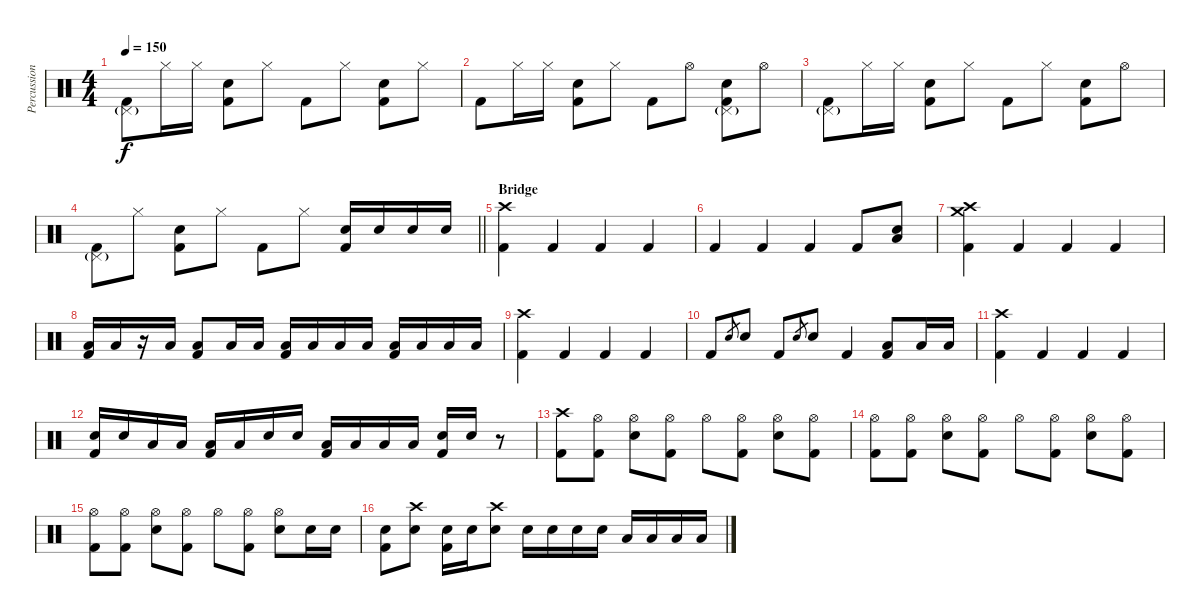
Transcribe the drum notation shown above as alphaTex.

\track ("Percussion" "Percussion") {instrument percussion}
\staff {score}
\articulation defaults
\ts (4 4)
\tempo 150
\clef neutral
\ks c
("Pedal Hi-Hat (hit)"{g} "Kick (hit) 2").8{dy f} "Hi-Hat (closed)".16 "Hi-Hat (closed)".16 ("Electric Snare (hit)" "Kick (hit) 2").8 "Hi-Hat (closed)".8 "Kick (hit) 2".8 "Hi-Hat (closed)".8 ("Electric Snare (hit)" "Kick (hit) 2").8 "Hi-Hat (closed)".8 |
"Kick (hit) 2".8 "Hi-Hat (closed)".16 "Hi-Hat (closed)".16 ("Electric Snare (hit)" "Kick (hit) 2").8 "Hi-Hat (closed)".8 "Kick (hit) 2".8 "Hi-Hat (open)".8 ("Pedal Hi-Hat (hit)"{g} "Electric Snare (hit)" "Kick (hit) 2").8 "Hi-Hat (open)".8 |
("Pedal Hi-Hat (hit)"{g} "Kick (hit) 2").8 "Hi-Hat (closed)".16 "Hi-Hat (closed)".16 ("Electric Snare (hit)" "Kick (hit) 2").8 "Hi-Hat (closed)".8 "Kick (hit) 2".8 "Hi-Hat (closed)".8 ("Electric Snare (hit)" "Kick (hit) 2").8 "Hi-Hat (open)".8 |
\barLineRight lightlight
("Pedal Hi-Hat (hit)"{g} "Kick (hit) 2").8 "Hi-Hat (closed)".8 ("Electric Snare (hit)" "Kick (hit) 2").8 "Hi-Hat (closed)".8 "Kick (hit) 2".8 "Hi-Hat (closed)".8 ("Electric Snare (hit)" "Kick (hit) 2").16 "Electric Snare (hit)".16 "Electric Snare (hit)".16 "Electric Snare (hit)".16 |
\section ("" "Bridge")
("Crash high (hit)" "Kick (hit) 2").4 "Kick (hit) 2".4 "Kick (hit) 2".4 "Kick (hit) 2".4 |
"Kick (hit) 2".4 "Kick (hit) 2".4 "Kick (hit) 2".4 "Kick (hit) 2".8 ("Electric Snare (hit)" "Low Floor Tom (hit)").8 |
("Crash high (hit)" "Crash medium (hit)" "Kick (hit) 2").4 "Kick (hit) 2".4 "Kick (hit) 2".4 "Kick (hit) 2".4 |
("Low Tom (hit)" "Kick (hit) 2").16 "Low Tom (hit)".16 r.16 "Low Tom (hit)".16 ("Low Tom (hit)" "Kick (hit) 2").8 "Low Tom (hit)".16 "Low Tom (hit)".16 ("Low Tom (hit)" "Kick (hit) 2").16 "Low Tom (hit)".16 "Low Tom (hit)".16 "Low Tom (hit)".16 ("Low Floor Tom (hit)" "Kick (hit) 2").16 "Low Floor Tom (hit)".16 "Low Floor Tom (hit)".16 "Low Floor Tom (hit)".16 |
("Crash high (hit)" "Kick (hit) 2").4 "Kick (hit) 2".4 "Kick (hit) 2".4 "Kick (hit) 2".4 |
"Kick (hit) 2".8 "Electric Snare (hit)".8{gr} "Electric Snare (hit)".8 "Kick (hit) 2".8 "Electric Snare (hit)".8{gr} "Electric Snare (hit)".8 "Kick (hit) 2".4 ("Low Tom (hit)" "Kick (hit) 2").8 "Low Tom (hit)".16 "Low Floor Tom (hit)".16 |
("Crash high (hit)" "Kick (hit) 2").4 "Kick (hit) 2".4 "Kick (hit) 2".4 "Kick (hit) 2".4 |
("Electric Snare (hit)" "Kick (hit) 2").16 "Electric Snare (hit)".16 "Low Tom (hit)".16 "Low Tom (hit)".16 ("Low Tom (hit)" "Kick (hit) 2").16 "Low Tom (hit)".16 "Electric Snare (hit)".16 "Electric Snare (hit)".16 ("Low Tom (hit)" "Kick (hit) 2").16 "Low Tom (hit)".16 "Low Tom (hit)".16 "Low Tom (hit)".16 ("Electric Snare (hit)" "Kick (hit) 2").16 "Electric Snare (hit)".16 r.8 |
("Crash high (hit)" "Kick (hit) 2").8 ("Hi-Hat (open)" "Kick (hit) 2").8 ("Hi-Hat (open)" "Electric Snare (hit)").8 ("Hi-Hat (open)" "Kick (hit) 2").8 "Hi-Hat (open)".8 ("Hi-Hat (open)" "Kick (hit) 2").8 ("Hi-Hat (open)" "Electric Snare (hit)").8 ("Hi-Hat (open)" "Kick (hit) 2").8 |
("Hi-Hat (open)" "Kick (hit) 2").8 ("Hi-Hat (open)" "Kick (hit) 2").8 ("Hi-Hat (open)" "Electric Snare (hit)").8 ("Hi-Hat (open)" "Kick (hit) 2").8 "Hi-Hat (open)".8 ("Hi-Hat (open)" "Kick (hit) 2").8 ("Hi-Hat (open)" "Electric Snare (hit)").8 ("Hi-Hat (open)" "Kick (hit) 2").8 |
("Hi-Hat (open)" "Kick (hit) 2").8 ("Hi-Hat (open)" "Kick (hit) 2").8 ("Hi-Hat (open)" "Electric Snare (hit)").8 ("Hi-Hat (open)" "Kick (hit) 2").8 "Hi-Hat (open)".8 ("Hi-Hat (open)" "Kick (hit) 2").8 ("Hi-Hat (open)" "Electric Snare (hit)").8 "Electric Snare (hit)".16 "Electric Snare (hit)".16 |
("Electric Snare (hit)" "Kick (hit) 2").8 ("Crash high (hit)" "Electric Snare (hit)").8 ("Electric Snare (hit)" "Kick (hit) 2").16 "Electric Snare (hit)".16 ("Crash high (hit)" "Electric Snare (hit)").8 "Electric Snare (hit)".16 "Electric Snare (hit)".16 "Electric Snare (hit)".16 "Electric Snare (hit)".16 "Low Tom (hit)".16 "Low Tom (hit)".16 "Low Tom (hit)".16 "Low Tom (hit)".16
